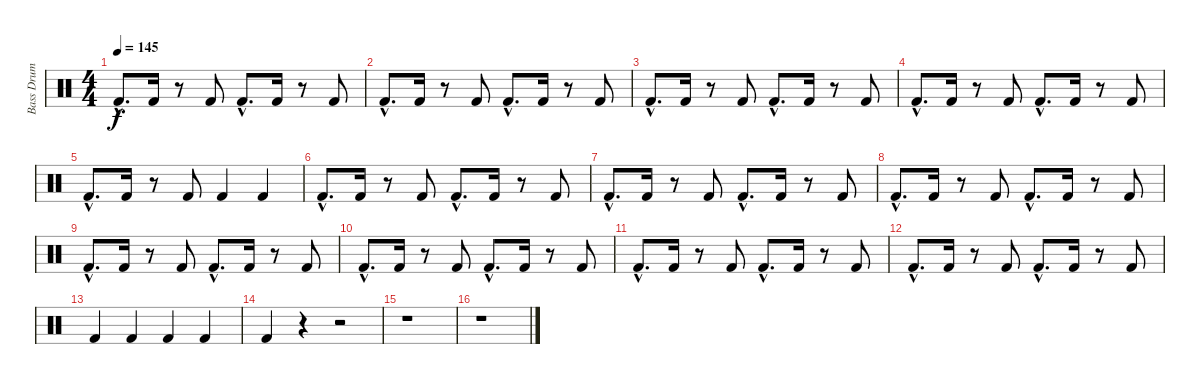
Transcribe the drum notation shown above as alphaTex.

\track ("Bass Drum" "Bass Drum") {instrument percussion}
\staff {score}
\articulation defaults
\ts (4 4)
\tempo 145
\clef neutral
\ks c "Kick (hit) 2"{hac}.8{d dy f} "Kick (hit) 2".16
r.8 "Kick (hit) 2".8 "Kick (hit) 2"{hac}.8{d} "Kick (hit) 2".16 r.8 "Kick (hit) 2".8 |
"Kick (hit) 2"{hac}.8{d} "Kick (hit) 2".16 r.8 "Kick (hit) 2".8 "Kick (hit) 2"{hac}.8{d} "Kick (hit) 2".16 r.8 "Kick (hit) 2".8 |
"Kick (hit) 2"{hac}.8{d} "Kick (hit) 2".16 r.8 "Kick (hit) 2".8 "Kick (hit) 2"{hac}.8{d} "Kick (hit) 2".16 r.8 "Kick (hit) 2".8 |
"Kick (hit) 2"{hac}.8{d} "Kick (hit) 2".16 r.8 "Kick (hit) 2".8 "Kick (hit) 2"{hac}.8{d} "Kick (hit) 2".16 r.8 "Kick (hit) 2".8 |
"Kick (hit) 2"{hac}.8{d} "Kick (hit) 2".16 r.8 "Kick (hit) 2".8 "Kick (hit) 2".4 "Kick (hit) 2".4 |
"Kick (hit) 2"{hac}.8{d} "Kick (hit) 2".16 r.8 "Kick (hit) 2".8 "Kick (hit) 2"{hac}.8{d} "Kick (hit) 2".16 r.8 "Kick (hit) 2".8 |
"Kick (hit) 2"{hac}.8{d} "Kick (hit) 2".16 r.8 "Kick (hit) 2".8 "Kick (hit) 2"{hac}.8{d} "Kick (hit) 2".16 r.8 "Kick (hit) 2".8 |
"Kick (hit) 2"{hac}.8{d} "Kick (hit) 2".16 r.8 "Kick (hit) 2".8 "Kick (hit) 2"{hac}.8{d} "Kick (hit) 2".16 r.8 "Kick (hit) 2".8 |
"Kick (hit) 2"{hac}.8{d} "Kick (hit) 2".16 r.8 "Kick (hit) 2".8 "Kick (hit) 2"{hac}.8{d} "Kick (hit) 2".16 r.8 "Kick (hit) 2".8 |
"Kick (hit) 2"{hac}.8{d} "Kick (hit) 2".16 r.8 "Kick (hit) 2".8 "Kick (hit) 2"{hac}.8{d} "Kick (hit) 2".16 r.8 "Kick (hit) 2".8 |
"Kick (hit) 2"{hac}.8{d} "Kick (hit) 2".16 r.8 "Kick (hit) 2".8 "Kick (hit) 2"{hac}.8{d} "Kick (hit) 2".16 r.8 "Kick (hit) 2".8 |
"Kick (hit) 2"{hac}.8{d} "Kick (hit) 2".16 r.8 "Kick (hit) 2".8 "Kick (hit) 2"{hac}.8{d} "Kick (hit) 2".16 r.8 "Kick (hit) 2".8 |
"Kick (hit) 2".4 "Kick (hit) 2".4 "Kick (hit) 2".4 "Kick (hit) 2".4 |
"Kick (hit) 2".4 r.4 r.2 |
r.1 |
r.1
